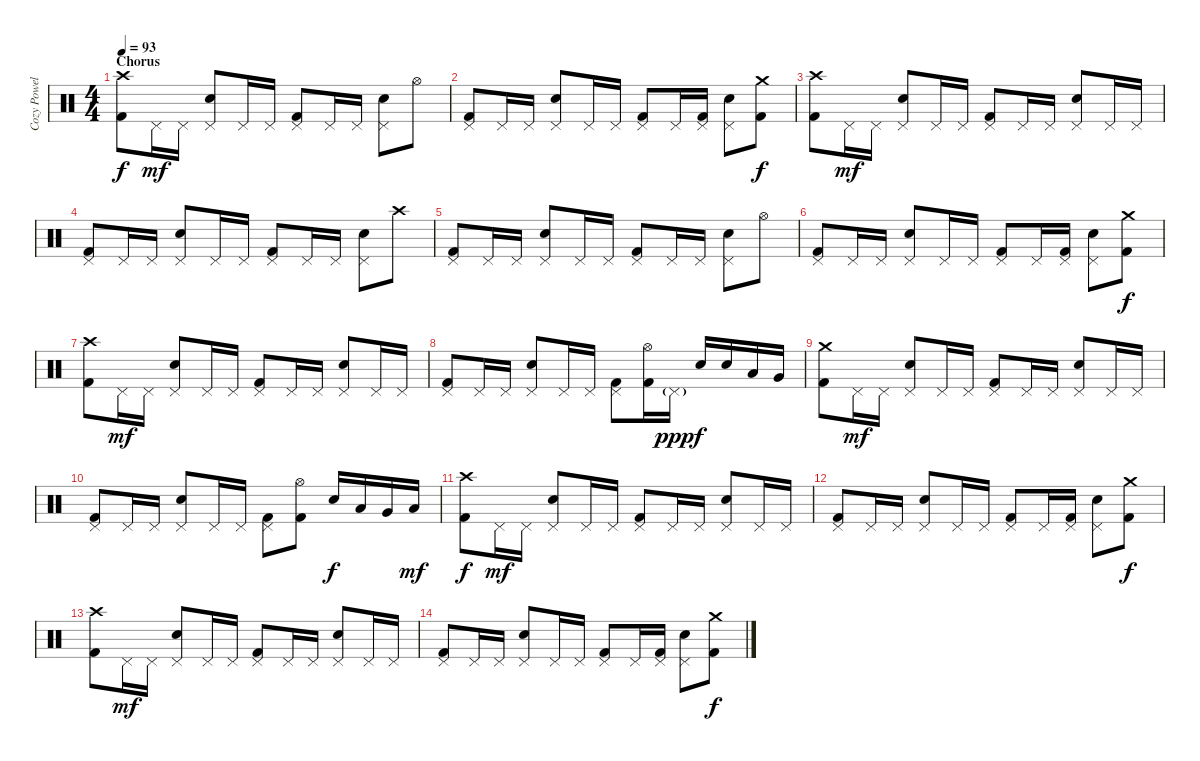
\track ("Cozy Powell" "Cozy Powel") {instrument percussion}
\staff {score}
\articulation defaults
\ts (4 4)
\section ("" "Chorus")
\tempo 93
\clef neutral
\ks c
("Kick (hit) 2" "Crash high (hit)").8{dy f} "Pedal Hi-Hat (hit)".16{dy mf} "Pedal Hi-Hat (hit)".16 ("Pedal Hi-Hat (hit)" "Snare (hit) 2").8 "Pedal Hi-Hat (hit)".16 "Pedal Hi-Hat (hit)".16 ("Kick (hit) 2" "Pedal Hi-Hat (hit)").8 "Pedal Hi-Hat (hit)".16 "Pedal Hi-Hat (hit)".16 ("Pedal Hi-Hat (hit)" "Snare (hit) 2").8 "Hi-Hat (open)".8 |
("Kick (hit) 2" "Pedal Hi-Hat (hit)").8 "Pedal Hi-Hat (hit)".16 "Pedal Hi-Hat (hit)".16 ("Pedal Hi-Hat (hit)" "Snare (hit) 2").8 "Pedal Hi-Hat (hit)".16 "Pedal Hi-Hat (hit)".16 ("Kick (hit) 2" "Pedal Hi-Hat (hit)").8 "Pedal Hi-Hat (hit)".16 ("Kick (hit) 2" "Pedal Hi-Hat (hit)").16 ("Pedal Hi-Hat (hit)" "Snare (hit) 2").8 ("Kick (hit) 2" "Crash medium (hit)").8{dy f} |
("Kick (hit) 2" "Crash high (hit)").8 "Pedal Hi-Hat (hit)".16{dy mf} "Pedal Hi-Hat (hit)".16 ("Pedal Hi-Hat (hit)" "Snare (hit) 2").8 "Pedal Hi-Hat (hit)".16 "Pedal Hi-Hat (hit)".16 ("Kick (hit) 2" "Pedal Hi-Hat (hit)").8 "Pedal Hi-Hat (hit)".16 "Pedal Hi-Hat (hit)".16 ("Pedal Hi-Hat (hit)" "Snare (hit) 2").8 "Pedal Hi-Hat (hit)".16 "Pedal Hi-Hat (hit)".16 |
("Kick (hit) 2" "Pedal Hi-Hat (hit)").8 "Pedal Hi-Hat (hit)".16 "Pedal Hi-Hat (hit)".16 ("Pedal Hi-Hat (hit)" "Snare (hit) 2").8 "Pedal Hi-Hat (hit)".16 "Pedal Hi-Hat (hit)".16 ("Kick (hit) 2" "Pedal Hi-Hat (hit)").8 "Pedal Hi-Hat (hit)".16 "Pedal Hi-Hat (hit)".16 ("Pedal Hi-Hat (hit)" "Snare (hit) 2").8 "Crash high (hit)".8 |
("Kick (hit) 2" "Pedal Hi-Hat (hit)").8 "Pedal Hi-Hat (hit)".16 "Pedal Hi-Hat (hit)".16 ("Pedal Hi-Hat (hit)" "Snare (hit) 2").8 "Pedal Hi-Hat (hit)".16 "Pedal Hi-Hat (hit)".16 ("Kick (hit) 2" "Pedal Hi-Hat (hit)").8 "Pedal Hi-Hat (hit)".16 "Pedal Hi-Hat (hit)".16 ("Pedal Hi-Hat (hit)" "Snare (hit) 2").8 "Hi-Hat (open)".8 |
("Kick (hit) 2" "Pedal Hi-Hat (hit)").8 "Pedal Hi-Hat (hit)".16 "Pedal Hi-Hat (hit)".16 ("Pedal Hi-Hat (hit)" "Snare (hit) 2").8 "Pedal Hi-Hat (hit)".16 "Pedal Hi-Hat (hit)".16 ("Kick (hit) 2" "Pedal Hi-Hat (hit)").8 "Pedal Hi-Hat (hit)".16 ("Kick (hit) 2" "Pedal Hi-Hat (hit)").16 ("Pedal Hi-Hat (hit)" "Snare (hit) 2").8 ("Kick (hit) 2" "Crash medium (hit)").8{dy f} |
("Kick (hit) 2" "Crash high (hit)").8 "Pedal Hi-Hat (hit)".16{dy mf} "Pedal Hi-Hat (hit)".16 ("Pedal Hi-Hat (hit)" "Snare (hit) 2").8 "Pedal Hi-Hat (hit)".16 "Pedal Hi-Hat (hit)".16 ("Kick (hit) 2" "Pedal Hi-Hat (hit)").8 "Pedal Hi-Hat (hit)".16 "Pedal Hi-Hat (hit)".16 ("Pedal Hi-Hat (hit)" "Snare (hit) 2").8 "Pedal Hi-Hat (hit)".16 "Pedal Hi-Hat (hit)".16 |
("Kick (hit) 2" "Pedal Hi-Hat (hit)").8 "Pedal Hi-Hat (hit)".16 "Pedal Hi-Hat (hit)".16 ("Pedal Hi-Hat (hit)" "Snare (hit) 2").8 "Pedal Hi-Hat (hit)".16 "Pedal Hi-Hat (hit)".16 ("Kick (hit) 2" "Pedal Hi-Hat (hit)").8 ("Kick (hit) 2" "Hi-Hat (open)").16 "Pedal Hi-Hat (hit)"{g}.16{dy ppp} "Snare (hit) 2".16{dy f} "Snare (hit) 2".16 "Low Tom (hit)".16 "Very Low Tom (hit)".16 |
("Kick (hit) 2" "Crash medium (hit)").8 "Pedal Hi-Hat (hit)".16{dy mf} "Pedal Hi-Hat (hit)".16 ("Pedal Hi-Hat (hit)" "Snare (hit) 2").8 "Pedal Hi-Hat (hit)".16 "Pedal Hi-Hat (hit)".16 ("Kick (hit) 2" "Pedal Hi-Hat (hit)").8 "Pedal Hi-Hat (hit)".16 "Pedal Hi-Hat (hit)".16 ("Pedal Hi-Hat (hit)" "Snare (hit) 2").8 "Pedal Hi-Hat (hit)".16 "Pedal Hi-Hat (hit)".16 |
("Kick (hit) 2" "Pedal Hi-Hat (hit)").8 "Pedal Hi-Hat (hit)".16 "Pedal Hi-Hat (hit)".16 ("Pedal Hi-Hat (hit)" "Snare (hit) 2").8 "Pedal Hi-Hat (hit)".16 "Pedal Hi-Hat (hit)".16 ("Kick (hit) 2" "Pedal Hi-Hat (hit)").8 ("Kick (hit) 2" "Hi-Hat (open)").8 "Snare (hit) 2".16{dy f} "Low Tom (hit)".16 "Very Low Tom (hit)".16 "Low Floor Tom (hit)".16{dy mf} |
("Kick (hit) 2" "Crash high (hit)").8{dy f} "Pedal Hi-Hat (hit)".16{dy mf} "Pedal Hi-Hat (hit)".16 ("Pedal Hi-Hat (hit)" "Snare (hit) 2").8 "Pedal Hi-Hat (hit)".16 "Pedal Hi-Hat (hit)".16 ("Kick (hit) 2" "Pedal Hi-Hat (hit)").8 "Pedal Hi-Hat (hit)".16 "Pedal Hi-Hat (hit)".16 ("Pedal Hi-Hat (hit)" "Snare (hit) 2").8 "Pedal Hi-Hat (hit)".16 "Pedal Hi-Hat (hit)".16 |
("Kick (hit) 2" "Pedal Hi-Hat (hit)").8 "Pedal Hi-Hat (hit)".16 "Pedal Hi-Hat (hit)".16 ("Pedal Hi-Hat (hit)" "Snare (hit) 2").8 "Pedal Hi-Hat (hit)".16 "Pedal Hi-Hat (hit)".16 ("Kick (hit) 2" "Pedal Hi-Hat (hit)").8 "Pedal Hi-Hat (hit)".16 ("Kick (hit) 2" "Pedal Hi-Hat (hit)").16 ("Pedal Hi-Hat (hit)" "Snare (hit) 2").8 ("Kick (hit) 2" "Crash medium (hit)").8{dy f} |
("Kick (hit) 2" "Crash high (hit)").8 "Pedal Hi-Hat (hit)".16{dy mf} "Pedal Hi-Hat (hit)".16 ("Pedal Hi-Hat (hit)" "Snare (hit) 2").8 "Pedal Hi-Hat (hit)".16 "Pedal Hi-Hat (hit)".16 ("Kick (hit) 2" "Pedal Hi-Hat (hit)").8 "Pedal Hi-Hat (hit)".16 "Pedal Hi-Hat (hit)".16 ("Pedal Hi-Hat (hit)" "Snare (hit) 2").8 "Pedal Hi-Hat (hit)".16 "Pedal Hi-Hat (hit)".16 |
("Kick (hit) 2" "Pedal Hi-Hat (hit)").8 "Pedal Hi-Hat (hit)".16 "Pedal Hi-Hat (hit)".16 ("Pedal Hi-Hat (hit)" "Snare (hit) 2").8 "Pedal Hi-Hat (hit)".16 "Pedal Hi-Hat (hit)".16 ("Kick (hit) 2" "Pedal Hi-Hat (hit)").8 "Pedal Hi-Hat (hit)".16 ("Kick (hit) 2" "Pedal Hi-Hat (hit)").16 ("Pedal Hi-Hat (hit)" "Snare (hit) 2").8 ("Kick (hit) 2" "Crash medium (hit)").8{dy f}
